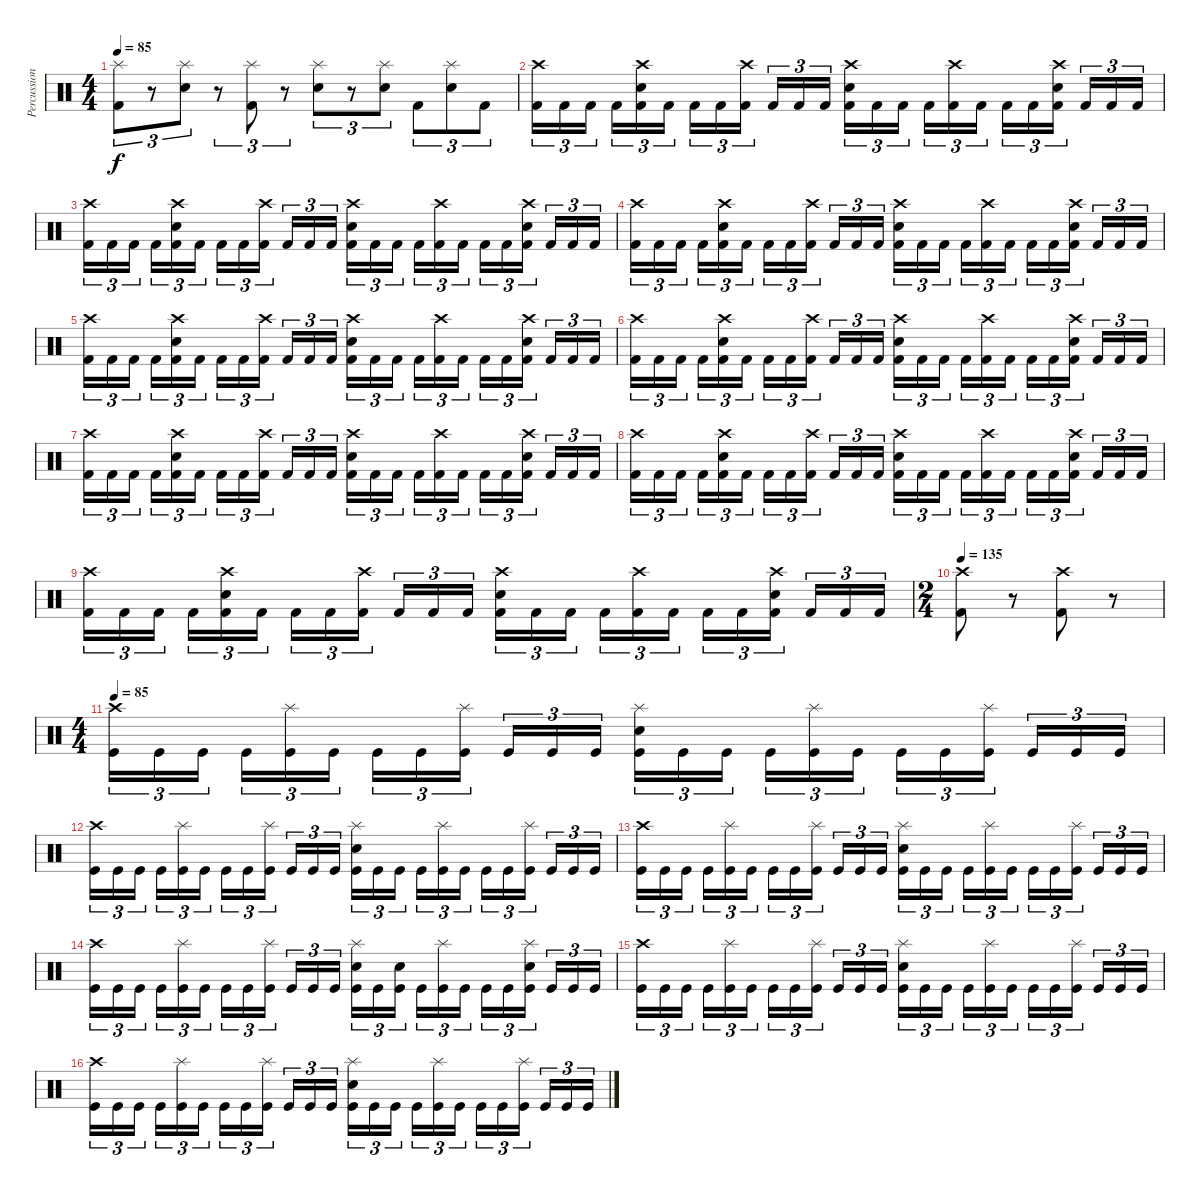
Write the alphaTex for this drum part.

\track ("Percussion" "Percussion") {instrument percussion}
\staff {score}
\articulation defaults
\ts (4 4)
\tempo 85
\clef neutral
\ks c
("Splash (hit)" "Kick (hit) 2").8{tu (3 2) dy f} r.8{tu (3 2)} ("Splash (hit)" "Electric Snare (hit)").8{tu (3 2)} r.8{tu (3 2)} ("Splash (hit)" "Kick (hit) 2").8{tu (3 2)} r.8{tu (3 2)} ("Splash (hit)" "Electric Snare (hit)").8{tu (3 2)} r.8{tu (3 2)} ("Splash (hit)" "Electric Snare (hit)").8{tu (3 2)} "Kick (hit) 2".8{tu (3 2)} ("Splash (hit)" "Electric Snare (hit)").8{tu (3 2)} "Kick (hit) 2".8{tu (3 2)} |
("Crash high (hit)" "Kick (hit) 2").16{tu (3 2)} "Kick (hit) 2".16{tu (3 2)} "Kick (hit) 2".16{tu (3 2)} "Kick (hit) 2".16{tu (3 2)} ("Crash high (hit)" "Electric Snare (hit)" "Kick (hit) 2").16{tu (3 2)} "Kick (hit) 2".16{tu (3 2)} "Kick (hit) 2".16{tu (3 2)} "Kick (hit) 2".16{tu (3 2)} ("Crash high (hit)" "Kick (hit) 2").16{tu (3 2)} "Kick (hit) 2".16{tu (3 2)} "Kick (hit) 2".16{tu (3 2)} "Kick (hit) 2".16{tu (3 2)} ("Crash high (hit)" "Electric Snare (hit)" "Kick (hit) 2").16{tu (3 2)} "Kick (hit) 2".16{tu (3 2)} "Kick (hit) 2".16{tu (3 2)} "Kick (hit) 2".16{tu (3 2)} ("Crash high (hit)" "Kick (hit) 2").16{tu (3 2)} "Kick (hit) 2".16{tu (3 2)} "Kick (hit) 2".16{tu (3 2)} "Kick (hit) 2".16{tu (3 2)} ("Crash high (hit)" "Electric Snare (hit)" "Kick (hit) 2").16{tu (3 2)} "Kick (hit) 2".16{tu (3 2)} "Kick (hit) 2".16{tu (3 2)} "Kick (hit) 2".16{tu (3 2)} |
("Crash high (hit)" "Kick (hit) 2").16{tu (3 2)} "Kick (hit) 2".16{tu (3 2)} "Kick (hit) 2".16{tu (3 2)} "Kick (hit) 2".16{tu (3 2)} ("Crash high (hit)" "Electric Snare (hit)" "Kick (hit) 2").16{tu (3 2)} "Kick (hit) 2".16{tu (3 2)} "Kick (hit) 2".16{tu (3 2)} "Kick (hit) 2".16{tu (3 2)} ("Crash high (hit)" "Kick (hit) 2").16{tu (3 2)} "Kick (hit) 2".16{tu (3 2)} "Kick (hit) 2".16{tu (3 2)} "Kick (hit) 2".16{tu (3 2)} ("Crash high (hit)" "Electric Snare (hit)" "Kick (hit) 2").16{tu (3 2)} "Kick (hit) 2".16{tu (3 2)} "Kick (hit) 2".16{tu (3 2)} "Kick (hit) 2".16{tu (3 2)} ("Crash high (hit)" "Kick (hit) 2").16{tu (3 2)} "Kick (hit) 2".16{tu (3 2)} "Kick (hit) 2".16{tu (3 2)} "Kick (hit) 2".16{tu (3 2)} ("Crash high (hit)" "Electric Snare (hit)" "Kick (hit) 2").16{tu (3 2)} "Kick (hit) 2".16{tu (3 2)} "Kick (hit) 2".16{tu (3 2)} "Kick (hit) 2".16{tu (3 2)} |
("Crash high (hit)" "Kick (hit) 2").16{tu (3 2)} "Kick (hit) 2".16{tu (3 2)} "Kick (hit) 2".16{tu (3 2)} "Kick (hit) 2".16{tu (3 2)} ("Crash high (hit)" "Electric Snare (hit)" "Kick (hit) 2").16{tu (3 2)} "Kick (hit) 2".16{tu (3 2)} "Kick (hit) 2".16{tu (3 2)} "Kick (hit) 2".16{tu (3 2)} ("Crash high (hit)" "Kick (hit) 2").16{tu (3 2)} "Kick (hit) 2".16{tu (3 2)} "Kick (hit) 2".16{tu (3 2)} "Kick (hit) 2".16{tu (3 2)} ("Crash high (hit)" "Electric Snare (hit)" "Kick (hit) 2").16{tu (3 2)} "Kick (hit) 2".16{tu (3 2)} "Kick (hit) 2".16{tu (3 2)} "Kick (hit) 2".16{tu (3 2)} ("Crash high (hit)" "Kick (hit) 2").16{tu (3 2)} "Kick (hit) 2".16{tu (3 2)} "Kick (hit) 2".16{tu (3 2)} "Kick (hit) 2".16{tu (3 2)} ("Crash high (hit)" "Electric Snare (hit)" "Kick (hit) 2").16{tu (3 2)} "Kick (hit) 2".16{tu (3 2)} "Kick (hit) 2".16{tu (3 2)} "Kick (hit) 2".16{tu (3 2)} |
("Crash high (hit)" "Kick (hit) 2").16{tu (3 2)} "Kick (hit) 2".16{tu (3 2)} "Kick (hit) 2".16{tu (3 2)} "Kick (hit) 2".16{tu (3 2)} ("Crash high (hit)" "Electric Snare (hit)" "Kick (hit) 2").16{tu (3 2)} "Kick (hit) 2".16{tu (3 2)} "Kick (hit) 2".16{tu (3 2)} "Kick (hit) 2".16{tu (3 2)} ("Crash high (hit)" "Kick (hit) 2").16{tu (3 2)} "Kick (hit) 2".16{tu (3 2)} "Kick (hit) 2".16{tu (3 2)} "Kick (hit) 2".16{tu (3 2)} ("Crash high (hit)" "Electric Snare (hit)" "Kick (hit) 2").16{tu (3 2)} "Kick (hit) 2".16{tu (3 2)} "Kick (hit) 2".16{tu (3 2)} "Kick (hit) 2".16{tu (3 2)} ("Crash high (hit)" "Kick (hit) 2").16{tu (3 2)} "Kick (hit) 2".16{tu (3 2)} "Kick (hit) 2".16{tu (3 2)} "Kick (hit) 2".16{tu (3 2)} ("Crash high (hit)" "Electric Snare (hit)" "Kick (hit) 2").16{tu (3 2)} "Kick (hit) 2".16{tu (3 2)} "Kick (hit) 2".16{tu (3 2)} "Kick (hit) 2".16{tu (3 2)} |
("Crash high (hit)" "Kick (hit) 2").16{tu (3 2)} "Kick (hit) 2".16{tu (3 2)} "Kick (hit) 2".16{tu (3 2)} "Kick (hit) 2".16{tu (3 2)} ("Crash high (hit)" "Electric Snare (hit)" "Kick (hit) 2").16{tu (3 2)} "Kick (hit) 2".16{tu (3 2)} "Kick (hit) 2".16{tu (3 2)} "Kick (hit) 2".16{tu (3 2)} ("Crash high (hit)" "Kick (hit) 2").16{tu (3 2)} "Kick (hit) 2".16{tu (3 2)} "Kick (hit) 2".16{tu (3 2)} "Kick (hit) 2".16{tu (3 2)} ("Crash high (hit)" "Electric Snare (hit)" "Kick (hit) 2").16{tu (3 2)} "Kick (hit) 2".16{tu (3 2)} "Kick (hit) 2".16{tu (3 2)} "Kick (hit) 2".16{tu (3 2)} ("Crash high (hit)" "Kick (hit) 2").16{tu (3 2)} "Kick (hit) 2".16{tu (3 2)} "Kick (hit) 2".16{tu (3 2)} "Kick (hit) 2".16{tu (3 2)} ("Crash high (hit)" "Electric Snare (hit)" "Kick (hit) 2").16{tu (3 2)} "Kick (hit) 2".16{tu (3 2)} "Kick (hit) 2".16{tu (3 2)} "Kick (hit) 2".16{tu (3 2)} |
("Crash high (hit)" "Kick (hit) 2").16{tu (3 2)} "Kick (hit) 2".16{tu (3 2)} "Kick (hit) 2".16{tu (3 2)} "Kick (hit) 2".16{tu (3 2)} ("Crash high (hit)" "Electric Snare (hit)" "Kick (hit) 2").16{tu (3 2)} "Kick (hit) 2".16{tu (3 2)} "Kick (hit) 2".16{tu (3 2)} "Kick (hit) 2".16{tu (3 2)} ("Crash high (hit)" "Kick (hit) 2").16{tu (3 2)} "Kick (hit) 2".16{tu (3 2)} "Kick (hit) 2".16{tu (3 2)} "Kick (hit) 2".16{tu (3 2)} ("Crash high (hit)" "Electric Snare (hit)" "Kick (hit) 2").16{tu (3 2)} "Kick (hit) 2".16{tu (3 2)} "Kick (hit) 2".16{tu (3 2)} "Kick (hit) 2".16{tu (3 2)} ("Crash high (hit)" "Kick (hit) 2").16{tu (3 2)} "Kick (hit) 2".16{tu (3 2)} "Kick (hit) 2".16{tu (3 2)} "Kick (hit) 2".16{tu (3 2)} ("Crash high (hit)" "Electric Snare (hit)" "Kick (hit) 2").16{tu (3 2)} "Kick (hit) 2".16{tu (3 2)} "Kick (hit) 2".16{tu (3 2)} "Kick (hit) 2".16{tu (3 2)} |
("Crash high (hit)" "Kick (hit) 2").16{tu (3 2)} "Kick (hit) 2".16{tu (3 2)} "Kick (hit) 2".16{tu (3 2)} "Kick (hit) 2".16{tu (3 2)} ("Crash high (hit)" "Electric Snare (hit)" "Kick (hit) 2").16{tu (3 2)} "Kick (hit) 2".16{tu (3 2)} "Kick (hit) 2".16{tu (3 2)} "Kick (hit) 2".16{tu (3 2)} ("Crash high (hit)" "Kick (hit) 2").16{tu (3 2)} "Kick (hit) 2".16{tu (3 2)} "Kick (hit) 2".16{tu (3 2)} "Kick (hit) 2".16{tu (3 2)} ("Crash high (hit)" "Electric Snare (hit)" "Kick (hit) 2").16{tu (3 2)} "Kick (hit) 2".16{tu (3 2)} "Kick (hit) 2".16{tu (3 2)} "Kick (hit) 2".16{tu (3 2)} ("Crash high (hit)" "Kick (hit) 2").16{tu (3 2)} "Kick (hit) 2".16{tu (3 2)} "Kick (hit) 2".16{tu (3 2)} "Kick (hit) 2".16{tu (3 2)} ("Crash high (hit)" "Electric Snare (hit)" "Kick (hit) 2").16{tu (3 2)} "Kick (hit) 2".16{tu (3 2)} "Kick (hit) 2".16{tu (3 2)} "Kick (hit) 2".16{tu (3 2)} |
("Crash high (hit)" "Kick (hit) 2").16{tu (3 2)} "Kick (hit) 2".16{tu (3 2)} "Kick (hit) 2".16{tu (3 2)} "Kick (hit) 2".16{tu (3 2)} ("Crash high (hit)" "Electric Snare (hit)" "Kick (hit) 2").16{tu (3 2)} "Kick (hit) 2".16{tu (3 2)} "Kick (hit) 2".16{tu (3 2)} "Kick (hit) 2".16{tu (3 2)} ("Crash high (hit)" "Kick (hit) 2").16{tu (3 2)} "Kick (hit) 2".16{tu (3 2)} "Kick (hit) 2".16{tu (3 2)} "Kick (hit) 2".16{tu (3 2)} ("Crash high (hit)" "Electric Snare (hit)" "Kick (hit) 2").16{tu (3 2)} "Kick (hit) 2".16{tu (3 2)} "Kick (hit) 2".16{tu (3 2)} "Kick (hit) 2".16{tu (3 2)} ("Crash high (hit)" "Kick (hit) 2").16{tu (3 2)} "Kick (hit) 2".16{tu (3 2)} "Kick (hit) 2".16{tu (3 2)} "Kick (hit) 2".16{tu (3 2)} ("Crash high (hit)" "Electric Snare (hit)" "Kick (hit) 2").16{tu (3 2)} "Kick (hit) 2".16{tu (3 2)} "Kick (hit) 2".16{tu (3 2)} "Kick (hit) 2".16{tu (3 2)} |
\ts (2 4)
\tempo 135
("Crash high (hit)" "Kick (hit) 2").8 r.8 ("Crash high (hit)" "Kick (hit) 2").8 r.8 |
\ts (4 4)
\tempo 85
("Crash high (hit)" "Kick (hit)").16{tu (3 2)} "Kick (hit)".16{tu (3 2)} "Kick (hit)".16{tu (3 2)} "Kick (hit)".16{tu (3 2)} ("Splash (hit)" "Kick (hit)").16{tu (3 2)} "Kick (hit)".16{tu (3 2)} "Kick (hit)".16{tu (3 2)} "Kick (hit)".16{tu (3 2)} ("Splash (hit)" "Kick (hit)").16{tu (3 2)} "Kick (hit)".16{tu (3 2)} "Kick (hit)".16{tu (3 2)} "Kick (hit)".16{tu (3 2)} ("Splash (hit)" "Electric Snare (hit)" "Kick (hit)").16{tu (3 2)} "Kick (hit)".16{tu (3 2)} "Kick (hit)".16{tu (3 2)} "Kick (hit)".16{tu (3 2)} ("Splash (hit)" "Kick (hit)").16{tu (3 2)} "Kick (hit)".16{tu (3 2)} "Kick (hit)".16{tu (3 2)} "Kick (hit)".16{tu (3 2)} ("Splash (hit)" "Kick (hit)").16{tu (3 2)} "Kick (hit)".16{tu (3 2)} "Kick (hit)".16{tu (3 2)} "Kick (hit)".16{tu (3 2)} |
("Crash high (hit)" "Kick (hit)").16{tu (3 2)} "Kick (hit)".16{tu (3 2)} "Kick (hit)".16{tu (3 2)} "Kick (hit)".16{tu (3 2)} ("Splash (hit)" "Kick (hit)").16{tu (3 2)} "Kick (hit)".16{tu (3 2)} "Kick (hit)".16{tu (3 2)} "Kick (hit)".16{tu (3 2)} ("Splash (hit)" "Kick (hit)").16{tu (3 2)} "Kick (hit)".16{tu (3 2)} "Kick (hit)".16{tu (3 2)} "Kick (hit)".16{tu (3 2)} ("Splash (hit)" "Electric Snare (hit)" "Kick (hit)").16{tu (3 2)} "Kick (hit)".16{tu (3 2)} "Kick (hit)".16{tu (3 2)} "Kick (hit)".16{tu (3 2)} ("Splash (hit)" "Kick (hit)").16{tu (3 2)} "Kick (hit)".16{tu (3 2)} "Kick (hit)".16{tu (3 2)} "Kick (hit)".16{tu (3 2)} ("Splash (hit)" "Kick (hit)").16{tu (3 2)} "Kick (hit)".16{tu (3 2)} "Kick (hit)".16{tu (3 2)} "Kick (hit)".16{tu (3 2)} |
("Crash high (hit)" "Kick (hit)").16{tu (3 2)} "Kick (hit)".16{tu (3 2)} "Kick (hit)".16{tu (3 2)} "Kick (hit)".16{tu (3 2)} ("Splash (hit)" "Kick (hit)").16{tu (3 2)} "Kick (hit)".16{tu (3 2)} "Kick (hit)".16{tu (3 2)} "Kick (hit)".16{tu (3 2)} ("Splash (hit)" "Kick (hit)").16{tu (3 2)} "Kick (hit)".16{tu (3 2)} "Kick (hit)".16{tu (3 2)} "Kick (hit)".16{tu (3 2)} ("Splash (hit)" "Electric Snare (hit)" "Kick (hit)").16{tu (3 2)} "Kick (hit)".16{tu (3 2)} "Kick (hit)".16{tu (3 2)} "Kick (hit)".16{tu (3 2)} ("Splash (hit)" "Kick (hit)").16{tu (3 2)} "Kick (hit)".16{tu (3 2)} "Kick (hit)".16{tu (3 2)} "Kick (hit)".16{tu (3 2)} ("Splash (hit)" "Kick (hit)").16{tu (3 2)} "Kick (hit)".16{tu (3 2)} "Kick (hit)".16{tu (3 2)} "Kick (hit)".16{tu (3 2)} |
("Crash high (hit)" "Kick (hit)").16{tu (3 2)} "Kick (hit)".16{tu (3 2)} "Kick (hit)".16{tu (3 2)} "Kick (hit)".16{tu (3 2)} ("Splash (hit)" "Kick (hit)").16{tu (3 2)} "Kick (hit)".16{tu (3 2)} "Kick (hit)".16{tu (3 2)} "Kick (hit)".16{tu (3 2)} ("Splash (hit)" "Kick (hit)").16{tu (3 2)} "Kick (hit)".16{tu (3 2)} "Kick (hit)".16{tu (3 2)} "Kick (hit)".16{tu (3 2)} ("Splash (hit)" "Electric Snare (hit)" "Kick (hit)").16{tu (3 2)} "Kick (hit)".16{tu (3 2)} ("Electric Snare (hit)" "Kick (hit)").16{tu (3 2)} "Kick (hit)".16{tu (3 2)} ("Splash (hit)" "Kick (hit)").16{tu (3 2)} "Kick (hit)".16{tu (3 2)} "Kick (hit)".16{tu (3 2)} "Kick (hit)".16{tu (3 2)} ("Splash (hit)" "Electric Snare (hit)" "Kick (hit)").16{tu (3 2)} "Kick (hit)".16{tu (3 2)} "Kick (hit)".16{tu (3 2)} "Kick (hit)".16{tu (3 2)} |
("Crash high (hit)" "Kick (hit)").16{tu (3 2)} "Kick (hit)".16{tu (3 2)} "Kick (hit)".16{tu (3 2)} "Kick (hit)".16{tu (3 2)} ("Splash (hit)" "Kick (hit)").16{tu (3 2)} "Kick (hit)".16{tu (3 2)} "Kick (hit)".16{tu (3 2)} "Kick (hit)".16{tu (3 2)} ("Splash (hit)" "Kick (hit)").16{tu (3 2)} "Kick (hit)".16{tu (3 2)} "Kick (hit)".16{tu (3 2)} "Kick (hit)".16{tu (3 2)} ("Splash (hit)" "Electric Snare (hit)" "Kick (hit)").16{tu (3 2)} "Kick (hit)".16{tu (3 2)} "Kick (hit)".16{tu (3 2)} "Kick (hit)".16{tu (3 2)} ("Splash (hit)" "Kick (hit)").16{tu (3 2)} "Kick (hit)".16{tu (3 2)} "Kick (hit)".16{tu (3 2)} "Kick (hit)".16{tu (3 2)} ("Splash (hit)" "Kick (hit)").16{tu (3 2)} "Kick (hit)".16{tu (3 2)} "Kick (hit)".16{tu (3 2)} "Kick (hit)".16{tu (3 2)} |
("Crash high (hit)" "Kick (hit)").16{tu (3 2)} "Kick (hit)".16{tu (3 2)} "Kick (hit)".16{tu (3 2)} "Kick (hit)".16{tu (3 2)} ("Splash (hit)" "Kick (hit)").16{tu (3 2)} "Kick (hit)".16{tu (3 2)} "Kick (hit)".16{tu (3 2)} "Kick (hit)".16{tu (3 2)} ("Splash (hit)" "Kick (hit)").16{tu (3 2)} "Kick (hit)".16{tu (3 2)} "Kick (hit)".16{tu (3 2)} "Kick (hit)".16{tu (3 2)} ("Splash (hit)" "Electric Snare (hit)" "Kick (hit)").16{tu (3 2)} "Kick (hit)".16{tu (3 2)} "Kick (hit)".16{tu (3 2)} "Kick (hit)".16{tu (3 2)} ("Splash (hit)" "Kick (hit)").16{tu (3 2)} "Kick (hit)".16{tu (3 2)} "Kick (hit)".16{tu (3 2)} "Kick (hit)".16{tu (3 2)} ("Splash (hit)" "Kick (hit)").16{tu (3 2)} "Kick (hit)".16{tu (3 2)} "Kick (hit)".16{tu (3 2)} "Kick (hit)".16{tu (3 2)}
